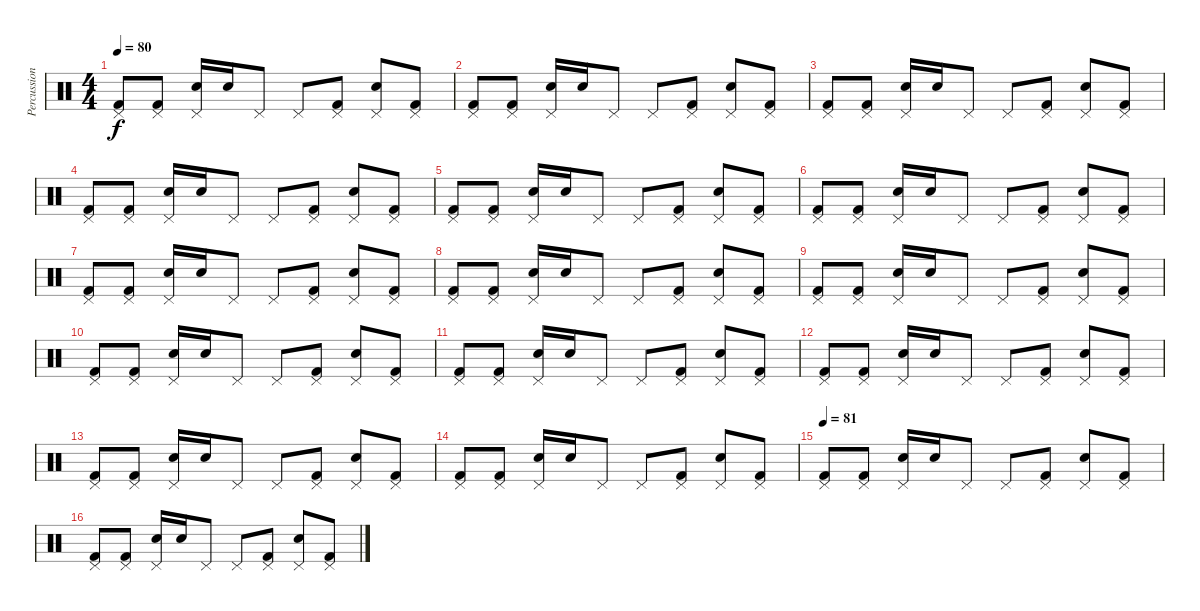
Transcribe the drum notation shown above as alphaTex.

\track ("Percussion" "Percussion") {instrument percussion}
\staff {score}
\articulation defaults
\ts (4 4)
\tempo 80
\clef neutral
\ks c
("Pedal Hi-Hat (hit)" "Kick (hit) 2").8{dy f} ("Pedal Hi-Hat (hit)" "Kick (hit) 2").8 ("Pedal Hi-Hat (hit)" "Snare (hit) 2").16 "Snare (hit) 2".16 "Pedal Hi-Hat (hit)".8 "Pedal Hi-Hat (hit)".8 ("Pedal Hi-Hat (hit)" "Kick (hit) 2").8 ("Pedal Hi-Hat (hit)" "Snare (hit) 2").8 ("Pedal Hi-Hat (hit)" "Kick (hit) 2").8 |
("Pedal Hi-Hat (hit)" "Kick (hit) 2").8 ("Pedal Hi-Hat (hit)" "Kick (hit) 2").8 ("Pedal Hi-Hat (hit)" "Snare (hit) 2").16 "Snare (hit) 2".16 "Pedal Hi-Hat (hit)".8 "Pedal Hi-Hat (hit)".8 ("Pedal Hi-Hat (hit)" "Kick (hit) 2").8 ("Pedal Hi-Hat (hit)" "Snare (hit) 2").8 ("Pedal Hi-Hat (hit)" "Kick (hit) 2").8 |
("Pedal Hi-Hat (hit)" "Kick (hit) 2").8 ("Pedal Hi-Hat (hit)" "Kick (hit) 2").8 ("Pedal Hi-Hat (hit)" "Snare (hit) 2").16 "Snare (hit) 2".16 "Pedal Hi-Hat (hit)".8 "Pedal Hi-Hat (hit)".8 ("Pedal Hi-Hat (hit)" "Kick (hit) 2").8 ("Pedal Hi-Hat (hit)" "Snare (hit) 2").8 ("Pedal Hi-Hat (hit)" "Kick (hit) 2").8 |
("Pedal Hi-Hat (hit)" "Kick (hit) 2").8 ("Pedal Hi-Hat (hit)" "Kick (hit) 2").8 ("Pedal Hi-Hat (hit)" "Snare (hit) 2").16 "Snare (hit) 2".16 "Pedal Hi-Hat (hit)".8 "Pedal Hi-Hat (hit)".8 ("Pedal Hi-Hat (hit)" "Kick (hit) 2").8 ("Pedal Hi-Hat (hit)" "Snare (hit) 2").8 ("Pedal Hi-Hat (hit)" "Kick (hit) 2").8 |
("Pedal Hi-Hat (hit)" "Kick (hit) 2").8 ("Pedal Hi-Hat (hit)" "Kick (hit) 2").8 ("Pedal Hi-Hat (hit)" "Snare (hit) 2").16 "Snare (hit) 2".16 "Pedal Hi-Hat (hit)".8 "Pedal Hi-Hat (hit)".8 ("Pedal Hi-Hat (hit)" "Kick (hit) 2").8 ("Pedal Hi-Hat (hit)" "Snare (hit) 2").8 ("Pedal Hi-Hat (hit)" "Kick (hit) 2").8 |
("Pedal Hi-Hat (hit)" "Kick (hit) 2").8 ("Pedal Hi-Hat (hit)" "Kick (hit) 2").8 ("Pedal Hi-Hat (hit)" "Snare (hit) 2").16 "Snare (hit) 2".16 "Pedal Hi-Hat (hit)".8 "Pedal Hi-Hat (hit)".8 ("Pedal Hi-Hat (hit)" "Kick (hit) 2").8 ("Pedal Hi-Hat (hit)" "Snare (hit) 2").8 ("Pedal Hi-Hat (hit)" "Kick (hit) 2").8 |
("Pedal Hi-Hat (hit)" "Kick (hit) 2").8 ("Pedal Hi-Hat (hit)" "Kick (hit) 2").8 ("Pedal Hi-Hat (hit)" "Snare (hit) 2").16 "Snare (hit) 2".16 "Pedal Hi-Hat (hit)".8 "Pedal Hi-Hat (hit)".8 ("Pedal Hi-Hat (hit)" "Kick (hit) 2").8 ("Pedal Hi-Hat (hit)" "Snare (hit) 2").8 ("Pedal Hi-Hat (hit)" "Kick (hit) 2").8 |
("Pedal Hi-Hat (hit)" "Kick (hit) 2").8 ("Pedal Hi-Hat (hit)" "Kick (hit) 2").8 ("Pedal Hi-Hat (hit)" "Snare (hit) 2").16 "Snare (hit) 2".16 "Pedal Hi-Hat (hit)".8 "Pedal Hi-Hat (hit)".8 ("Pedal Hi-Hat (hit)" "Kick (hit) 2").8 ("Pedal Hi-Hat (hit)" "Snare (hit) 2").8 ("Pedal Hi-Hat (hit)" "Kick (hit) 2").8 |
("Pedal Hi-Hat (hit)" "Kick (hit) 2").8 ("Pedal Hi-Hat (hit)" "Kick (hit) 2").8 ("Pedal Hi-Hat (hit)" "Snare (hit) 2").16 "Snare (hit) 2".16 "Pedal Hi-Hat (hit)".8 "Pedal Hi-Hat (hit)".8 ("Pedal Hi-Hat (hit)" "Kick (hit) 2").8 ("Pedal Hi-Hat (hit)" "Snare (hit) 2").8 ("Pedal Hi-Hat (hit)" "Kick (hit) 2").8 |
("Pedal Hi-Hat (hit)" "Kick (hit) 2").8 ("Pedal Hi-Hat (hit)" "Kick (hit) 2").8 ("Pedal Hi-Hat (hit)" "Snare (hit) 2").16 "Snare (hit) 2".16 "Pedal Hi-Hat (hit)".8 "Pedal Hi-Hat (hit)".8 ("Pedal Hi-Hat (hit)" "Kick (hit) 2").8 ("Pedal Hi-Hat (hit)" "Snare (hit) 2").8 ("Pedal Hi-Hat (hit)" "Kick (hit) 2").8 |
("Pedal Hi-Hat (hit)" "Kick (hit) 2").8 ("Pedal Hi-Hat (hit)" "Kick (hit) 2").8 ("Pedal Hi-Hat (hit)" "Snare (hit) 2").16 "Snare (hit) 2".16 "Pedal Hi-Hat (hit)".8 "Pedal Hi-Hat (hit)".8 ("Pedal Hi-Hat (hit)" "Kick (hit) 2").8 ("Pedal Hi-Hat (hit)" "Snare (hit) 2").8 ("Pedal Hi-Hat (hit)" "Kick (hit) 2").8 |
("Pedal Hi-Hat (hit)" "Kick (hit) 2").8 ("Pedal Hi-Hat (hit)" "Kick (hit) 2").8 ("Pedal Hi-Hat (hit)" "Snare (hit) 2").16 "Snare (hit) 2".16 "Pedal Hi-Hat (hit)".8 "Pedal Hi-Hat (hit)".8 ("Pedal Hi-Hat (hit)" "Kick (hit) 2").8 ("Pedal Hi-Hat (hit)" "Snare (hit) 2").8 ("Pedal Hi-Hat (hit)" "Kick (hit) 2").8 |
("Pedal Hi-Hat (hit)" "Kick (hit) 2").8 ("Pedal Hi-Hat (hit)" "Kick (hit) 2").8 ("Pedal Hi-Hat (hit)" "Snare (hit) 2").16 "Snare (hit) 2".16 "Pedal Hi-Hat (hit)".8 "Pedal Hi-Hat (hit)".8 ("Pedal Hi-Hat (hit)" "Kick (hit) 2").8 ("Pedal Hi-Hat (hit)" "Snare (hit) 2").8 ("Pedal Hi-Hat (hit)" "Kick (hit) 2").8 |
("Pedal Hi-Hat (hit)" "Kick (hit) 2").8 ("Pedal Hi-Hat (hit)" "Kick (hit) 2").8 ("Pedal Hi-Hat (hit)" "Snare (hit) 2").16 "Snare (hit) 2".16 "Pedal Hi-Hat (hit)".8 "Pedal Hi-Hat (hit)".8 ("Pedal Hi-Hat (hit)" "Kick (hit) 2").8 ("Pedal Hi-Hat (hit)" "Snare (hit) 2").8 ("Pedal Hi-Hat (hit)" "Kick (hit) 2").8 |
\tempo 81
("Pedal Hi-Hat (hit)" "Kick (hit) 2").8 ("Pedal Hi-Hat (hit)" "Kick (hit) 2").8 ("Pedal Hi-Hat (hit)" "Snare (hit) 2").16 "Snare (hit) 2".16 "Pedal Hi-Hat (hit)".8 "Pedal Hi-Hat (hit)".8 ("Pedal Hi-Hat (hit)" "Kick (hit) 2").8 ("Pedal Hi-Hat (hit)" "Snare (hit) 2").8 ("Pedal Hi-Hat (hit)" "Kick (hit) 2").8 |
("Pedal Hi-Hat (hit)" "Kick (hit) 2").8 ("Pedal Hi-Hat (hit)" "Kick (hit) 2").8 ("Pedal Hi-Hat (hit)" "Snare (hit) 2").16 "Snare (hit) 2".16 "Pedal Hi-Hat (hit)".8 "Pedal Hi-Hat (hit)".8 ("Pedal Hi-Hat (hit)" "Kick (hit) 2").8 ("Pedal Hi-Hat (hit)" "Snare (hit) 2").8 ("Pedal Hi-Hat (hit)" "Kick (hit) 2").8
